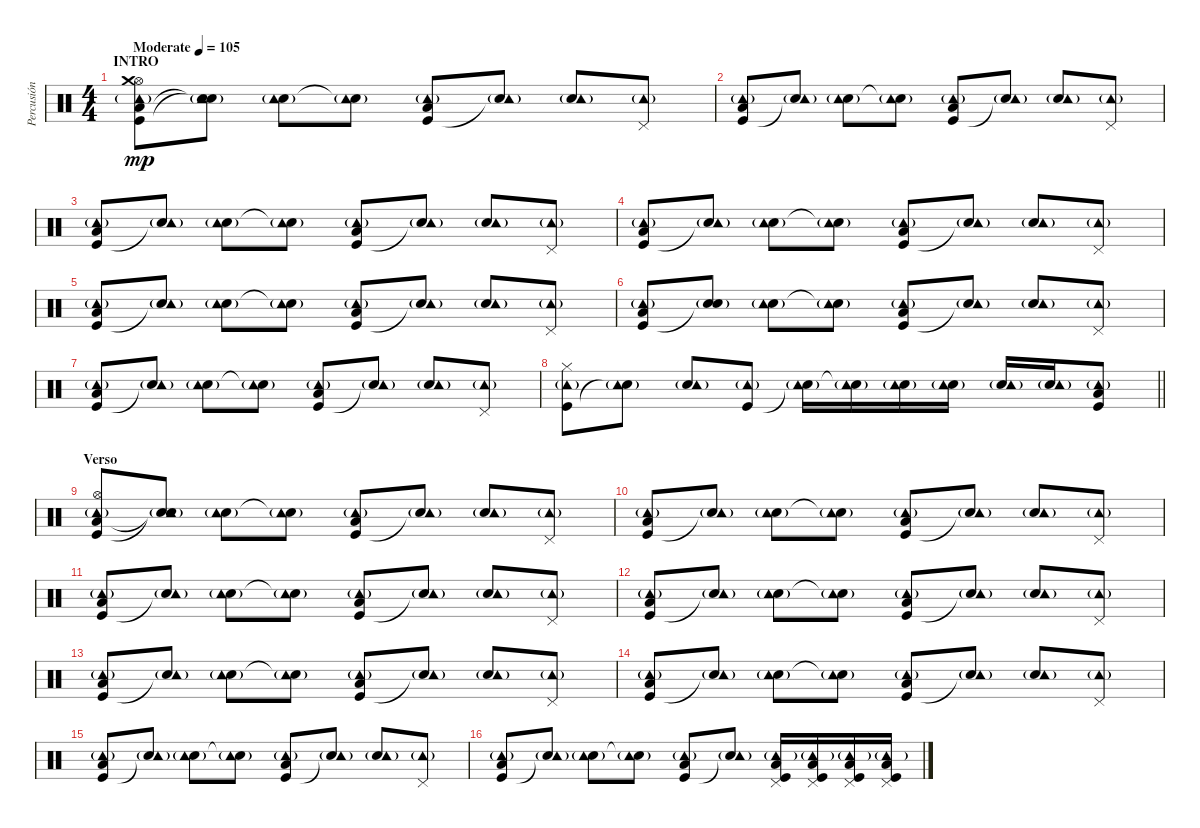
\track ("Percusión" "Percusión") {instrument percussion}
\staff {score}
\articulation defaults
\ts (4 4)
\section ("" "INTRO")
\tempo (105 "Moderate")
\clef neutral
\ks c
("Kick (hit)" "Low Floor Tom (hit)" "Hi-Hat (open)" "Tambourine (hit)"{g} "Crash medium (hit)").8{dy mp} ("Snare (hit)"{t} "Snare (hit)"{t} "Tambourine (hit)"{g}).8 ("Snare (hit) 2" "Tambourine (hit)"{g}).8 ("Snare (hit)"{t} "Tambourine (hit)"{g}).8 ("Kick (hit)" "Low Floor Tom (hit)" "Tambourine (hit)"{g}).8 ("Snare (hit)"{t} "Tambourine (hit)"{g}).8 ("Electric Snare (hit)" "Tambourine (hit)"{g}).8 ("Pedal Hi-Hat (hit)" "Tambourine (hit)"{g}).8 |
("Kick (hit)" "Low Floor Tom (hit)" "Tambourine (hit)"{g}).8 ("Snare (hit)"{t} "Tambourine (hit)"{g}).8 ("Snare (hit) 2" "Tambourine (hit)"{g}).8 ("Snare (hit)"{t} "Tambourine (hit)"{g}).8 ("Kick (hit)" "Low Floor Tom (hit)" "Tambourine (hit)"{g}).8 ("Snare (hit)"{t} "Tambourine (hit)"{g}).8 ("Electric Snare (hit)" "Tambourine (hit)"{g}).8 ("Pedal Hi-Hat (hit)" "Tambourine (hit)"{g}).8 |
("Kick (hit)" "Low Floor Tom (hit)" "Tambourine (hit)"{g}).8 ("Snare (hit)"{t} "Tambourine (hit)"{g}).8 ("Snare (hit) 2" "Tambourine (hit)"{g}).8 ("Snare (hit)"{t} "Tambourine (hit)"{g}).8 ("Kick (hit)" "Low Floor Tom (hit)" "Tambourine (hit)"{g}).8 ("Snare (hit)"{t} "Tambourine (hit)"{g}).8 ("Electric Snare (hit)" "Tambourine (hit)"{g}).8 ("Pedal Hi-Hat (hit)" "Tambourine (hit)"{g}).8 |
("Kick (hit)" "Low Floor Tom (hit)" "Tambourine (hit)"{g}).8 ("Snare (hit)"{t} "Tambourine (hit)"{g}).8 ("Snare (hit) 2" "Tambourine (hit)"{g}).8 ("Snare (hit)"{t} "Tambourine (hit)"{g}).8 ("Kick (hit)" "Low Floor Tom (hit)" "Tambourine (hit)"{g}).8 ("Snare (hit)"{t} "Tambourine (hit)"{g}).8 ("Electric Snare (hit)" "Tambourine (hit)"{g}).8 ("Pedal Hi-Hat (hit)" "Tambourine (hit)"{g}).8 |
("Kick (hit)" "Low Floor Tom (hit)" "Tambourine (hit)"{g}).8 ("Snare (hit)"{t} "Tambourine (hit)"{g}).8 ("Snare (hit) 2" "Tambourine (hit)"{g}).8 ("Snare (hit)"{t} "Tambourine (hit)"{g}).8 ("Kick (hit)" "Low Floor Tom (hit)" "Tambourine (hit)"{g}).8 ("Snare (hit)"{t} "Tambourine (hit)"{g}).8 ("Electric Snare (hit)" "Tambourine (hit)"{g}).8 ("Pedal Hi-Hat (hit)" "Tambourine (hit)"{g}).8 |
("Kick (hit)" "Low Floor Tom (hit)" "Tambourine (hit)"{g}).8 ("Snare (hit)"{t} "Snare (hit)"{g}).8 ("Snare (hit) 2" "Tambourine (hit)"{g}).8 ("Snare (hit)"{t} "Tambourine (hit)"{g}).8 ("Kick (hit)" "Low Floor Tom (hit)" "Tambourine (hit)"{g}).8 ("Snare (hit)"{t} "Tambourine (hit)"{g}).8 ("Electric Snare (hit)" "Tambourine (hit)"{g}).8 ("Pedal Hi-Hat (hit)" "Tambourine (hit)"{g}).8 |
("Kick (hit)" "Low Floor Tom (hit)" "Tambourine (hit)"{g}).8 ("Snare (hit)"{t} "Tambourine (hit)"{g}).8 ("Snare (hit) 2" "Tambourine (hit)"{g}).8 ("Snare (hit)"{t} "Tambourine (hit)"{g}).8 ("Kick (hit)" "Low Floor Tom (hit)" "Tambourine (hit)"{g}).8 ("Snare (hit)"{t} "Tambourine (hit)"{g}).8 ("Electric Snare (hit)" "Tambourine (hit)"{g}).8 ("Pedal Hi-Hat (hit)" "Tambourine (hit)"{g}).8 |
\barLineRight lightlight
("Kick (hit)" "Hi-Hat (closed)" "Tambourine (hit)"{g}).8 ("Snare (hit)"{t} "Tambourine (hit)"{g}).8 ("Electric Snare (hit)" "Tambourine (hit)"{g}).8 ("Kick (hit)" "Tambourine (hit)"{g}).8 ("Electric Snare (hit)"{t} "Tambourine (hit)"{g}).16 ("Electric Snare (hit)"{t} "Tambourine (hit)"{g}).16 ("Electric Snare (hit)" "Tambourine (hit)"{g}).16 ("Electric Snare (hit)" "Tambourine (hit)"{g}).16 ("Electric Snare (hit)" "Tambourine (hit)"{g}).16 ("Electric Snare (hit)" "Tambourine (hit)"{g}).16 ("Low Tom (hit)" "Kick (hit)" "Tambourine (hit)"{g}).8 |
\section ("" "Verso")
("Kick (hit)" "Low Floor Tom (hit)" "Hi-Hat (open)" "Tambourine (hit)"{g}).8 ("Snare (hit)"{t} "Snare (hit)"{t} "Tambourine (hit)"{g}).8 ("Snare (hit) 2" "Tambourine (hit)"{g}).8 ("Snare (hit)"{t} "Tambourine (hit)"{g}).8 ("Kick (hit)" "Low Floor Tom (hit)" "Tambourine (hit)"{g}).8 ("Snare (hit)"{t} "Tambourine (hit)"{g}).8 ("Electric Snare (hit)" "Tambourine (hit)"{g}).8 ("Pedal Hi-Hat (hit)" "Tambourine (hit)"{g}).8 |
("Kick (hit)" "Low Floor Tom (hit)" "Tambourine (hit)"{g}).8 ("Snare (hit)"{t} "Tambourine (hit)"{g}).8 ("Snare (hit) 2" "Tambourine (hit)"{g}).8 ("Snare (hit)"{t} "Tambourine (hit)"{g}).8 ("Kick (hit)" "Low Floor Tom (hit)" "Tambourine (hit)"{g}).8 ("Snare (hit)"{t} "Tambourine (hit)"{g}).8 ("Electric Snare (hit)" "Tambourine (hit)"{g}).8 ("Pedal Hi-Hat (hit)" "Tambourine (hit)"{g}).8 |
("Kick (hit)" "Low Floor Tom (hit)" "Tambourine (hit)"{g}).8 ("Snare (hit)"{t} "Tambourine (hit)"{g}).8 ("Snare (hit) 2" "Tambourine (hit)"{g}).8 ("Snare (hit)"{t} "Tambourine (hit)"{g}).8 ("Kick (hit)" "Low Floor Tom (hit)" "Tambourine (hit)"{g}).8 ("Snare (hit)"{t} "Tambourine (hit)"{g}).8 ("Electric Snare (hit)" "Tambourine (hit)"{g}).8 ("Pedal Hi-Hat (hit)" "Tambourine (hit)"{g}).8 |
("Kick (hit)" "Low Floor Tom (hit)" "Tambourine (hit)"{g}).8 ("Snare (hit)"{t} "Tambourine (hit)"{g}).8 ("Snare (hit) 2" "Tambourine (hit)"{g}).8 ("Snare (hit)"{t} "Tambourine (hit)"{g}).8 ("Kick (hit)" "Low Floor Tom (hit)" "Tambourine (hit)"{g}).8 ("Snare (hit)"{t} "Tambourine (hit)"{g}).8 ("Electric Snare (hit)" "Tambourine (hit)"{g}).8 ("Pedal Hi-Hat (hit)" "Tambourine (hit)"{g}).8 |
("Kick (hit)" "Low Floor Tom (hit)" "Tambourine (hit)"{g}).8 ("Snare (hit)"{t} "Tambourine (hit)"{g}).8 ("Snare (hit) 2" "Tambourine (hit)"{g}).8 ("Snare (hit)"{t} "Tambourine (hit)"{g}).8 ("Kick (hit)" "Low Floor Tom (hit)" "Tambourine (hit)"{g}).8 ("Snare (hit)"{t} "Tambourine (hit)"{g}).8 ("Electric Snare (hit)" "Tambourine (hit)"{g}).8 ("Pedal Hi-Hat (hit)" "Tambourine (hit)"{g}).8 |
("Kick (hit)" "Low Floor Tom (hit)" "Tambourine (hit)"{g}).8 ("Snare (hit)"{t} "Tambourine (hit)"{g}).8 ("Snare (hit) 2" "Tambourine (hit)"{g}).8 ("Snare (hit)"{t} "Tambourine (hit)"{g}).8 ("Kick (hit)" "Low Floor Tom (hit)" "Tambourine (hit)"{g}).8 ("Snare (hit)"{t} "Tambourine (hit)"{g}).8 ("Electric Snare (hit)" "Tambourine (hit)"{g}).8 ("Pedal Hi-Hat (hit)" "Tambourine (hit)"{g}).8 |
("Kick (hit)" "Low Floor Tom (hit)" "Tambourine (hit)"{g}).8 ("Snare (hit)"{t} "Tambourine (hit)"{g}).8 ("Snare (hit) 2" "Tambourine (hit)"{g}).8 ("Snare (hit)"{t} "Tambourine (hit)"{g}).8 ("Kick (hit)" "Low Floor Tom (hit)" "Tambourine (hit)"{g}).8 ("Snare (hit)"{t} "Tambourine (hit)"{g}).8 ("Electric Snare (hit)" "Tambourine (hit)"{g}).8 ("Pedal Hi-Hat (hit)" "Tambourine (hit)"{g}).8 |
("Kick (hit)" "Low Floor Tom (hit)" "Tambourine (hit)"{g}).8 ("Snare (hit)"{t} "Tambourine (hit)"{g}).8 ("Snare (hit) 2" "Tambourine (hit)"{g}).8 ("Snare (hit)"{t} "Tambourine (hit)"{g}).8 ("Kick (hit)" "Low Floor Tom (hit)" "Tambourine (hit)"{g}).8 ("Snare (hit)"{t} "Tambourine (hit)"{g}).8 ("Pedal Hi-Hat (hit)" "Low Floor Tom (hit)" "Kick (hit)" "Tambourine (hit)"{g}).16 ("Kick (hit)" "Low Floor Tom (hit)" "Pedal Hi-Hat (hit)" "Tambourine (hit)"{g}).16 ("Pedal Hi-Hat (hit)" "Low Floor Tom (hit)" "Kick (hit)" "Tambourine (hit)"{g}).16 ("Kick (hit)" "Low Floor Tom (hit)" "Pedal Hi-Hat (hit)" "Tambourine (hit)"{g}).16
